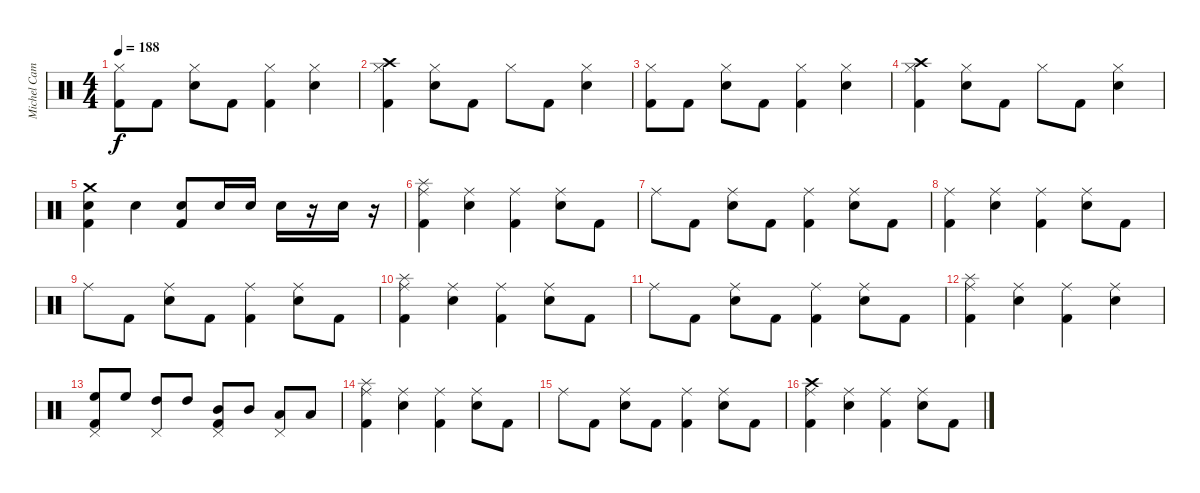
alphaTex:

\track ("Michel Camiade" "Michel Cam") {instrument percussion}
\staff {score}
\articulation defaults
\ts (4 4)
\tempo 188
\clef neutral
\ks c
("Hi-Hat (closed)" "Kick (hit) 2").8{dy f} "Kick (hit) 2".8 ("Hi-Hat (closed)" "Snare (hit) 2").8 "Kick (hit) 2".8 ("Hi-Hat (closed)" "Kick (hit) 2").4 ("Hi-Hat (closed)" "Snare (hit) 2").4 |
("Crash high (hit)" "Hi-Hat (closed)" "Kick (hit) 2").4 ("Hi-Hat (closed)" "Snare (hit) 2").8 "Kick (hit) 2".8 "Hi-Hat (closed)".8 "Kick (hit) 2".8 ("Hi-Hat (closed)" "Snare (hit) 2").4 |
("Hi-Hat (closed)" "Kick (hit) 2").8 "Kick (hit) 2".8 ("Hi-Hat (closed)" "Snare (hit) 2").8 "Kick (hit) 2".8 ("Hi-Hat (closed)" "Kick (hit) 2").4 ("Hi-Hat (closed)" "Snare (hit) 2").4 |
("Crash high (hit)" "Hi-Hat (closed)" "Kick (hit) 2").4 ("Hi-Hat (closed)" "Snare (hit) 2").8 "Kick (hit) 2".8 "Hi-Hat (closed)".8 "Kick (hit) 2".8 ("Hi-Hat (closed)" "Snare (hit) 2").4 |
("Crash medium (hit)" "Snare (hit) 2" "Kick (hit) 2").4 "Snare (hit) 2".4 ("Snare (hit) 2" "Kick (hit) 2").8 "Snare (hit) 2".16 "Snare (hit) 2".16 "Snare (hit) 2".16 r.16 "Snare (hit) 2".16 r.16 |
("Splash (hit)" "Ride (middle)" "Kick (hit) 2").4 ("Ride (middle)" "Snare (hit) 2").4 ("Ride (middle)" "Kick (hit) 2").4 ("Ride (middle)" "Snare (hit) 2").8 "Kick (hit) 2".8 |
"Ride (middle)".8 "Kick (hit) 2".8 ("Ride (middle)" "Snare (hit) 2").8 "Kick (hit) 2".8 ("Ride (middle)" "Kick (hit) 2").4 ("Ride (middle)" "Snare (hit) 2").8 "Kick (hit) 2".8 |
("Ride (middle)" "Kick (hit) 2").4 ("Ride (middle)" "Snare (hit) 2").4 ("Ride (middle)" "Kick (hit) 2").4 ("Ride (middle)" "Snare (hit) 2").8 "Kick (hit) 2".8 |
"Ride (middle)".8 "Kick (hit) 2".8 ("Ride (middle)" "Snare (hit) 2").8 "Kick (hit) 2".8 ("Ride (middle)" "Kick (hit) 2").4 ("Ride (middle)" "Snare (hit) 2").8 "Kick (hit) 2".8 |
("Splash (hit)" "Ride (middle)" "Kick (hit) 2").4 ("Ride (middle)" "Snare (hit) 2").4 ("Ride (middle)" "Kick (hit) 2").4 ("Ride (middle)" "Snare (hit) 2").8 "Kick (hit) 2".8 |
"Ride (middle)".8 "Kick (hit) 2".8 ("Ride (middle)" "Snare (hit) 2").8 "Kick (hit) 2".8 ("Ride (middle)" "Kick (hit) 2").4 ("Ride (middle)" "Snare (hit) 2").8 "Kick (hit) 2".8 |
("Splash (hit)" "Ride (middle)" "Kick (hit) 2").4 ("Ride (middle)" "Snare (hit) 2").4 ("Ride (middle)" "Kick (hit) 2").4 ("Ride (middle)" "Snare (hit) 2").4 |
("High Floor Tom (hit)" "Pedal Hi-Hat (hit)" "Kick (hit) 2").8 "High Floor Tom (hit)".8 ("High Tom (hit)" "Pedal Hi-Hat (hit)").8 "High Tom (hit)".8 ("Mid Tom (hit)" "Pedal Hi-Hat (hit)" "Kick (hit) 2").8 "Mid Tom (hit)".8 ("Low Tom (hit)" "Pedal Hi-Hat (hit)").8 "Low Tom (hit)".8 |
("Splash (hit)" "Ride (middle)" "Kick (hit) 2").4 ("Ride (middle)" "Snare (hit) 2").4 ("Ride (middle)" "Kick (hit) 2").4 ("Ride (middle)" "Snare (hit) 2").8 "Kick (hit) 2".8 |
"Ride (middle)".8 "Kick (hit) 2".8 ("Ride (middle)" "Snare (hit) 2").8 "Kick (hit) 2".8 ("Ride (middle)" "Kick (hit) 2").4 ("Ride (middle)" "Snare (hit) 2").8 "Kick (hit) 2".8 |
("Crash high (hit)" "Ride (middle)" "Kick (hit) 2").4 ("Ride (middle)" "Snare (hit) 2").4 ("Ride (middle)" "Kick (hit) 2").4 ("Ride (middle)" "Snare (hit) 2").8 "Kick (hit) 2".8
